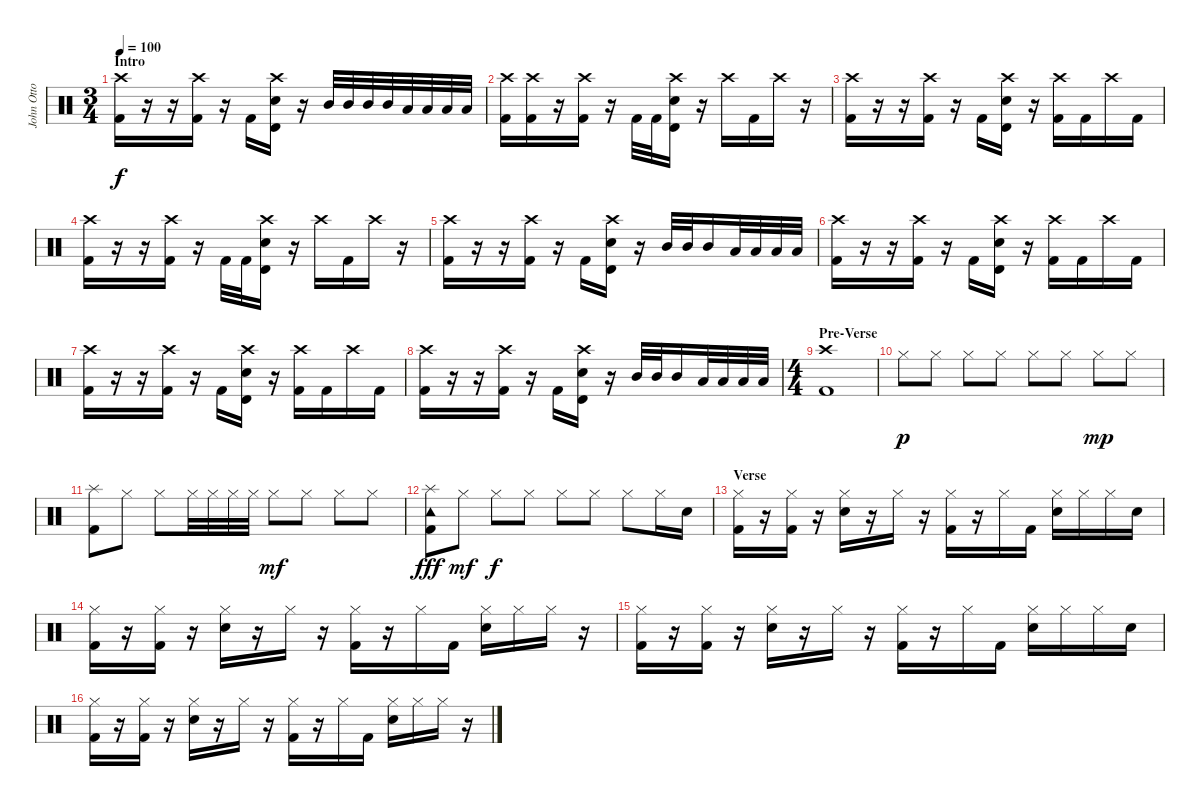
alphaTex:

\track ("John Otto - Drums" "John Otto ") {instrument percussion}
\staff {score}
\articulation defaults
\ts (3 4)
\section ("" "Intro")
\tempo 100
\clef neutral
\ks c
("Crash high (hit)" "Kick (hit) 2").16{dy f} r.16 r.16 ("Crash high (hit)" "Kick (hit) 2").16 r.16 "Kick (hit) 2".16 ("Crash high (hit)" "Timbale high (hit)" "Electric Snare (hit)").16 r.16 "Mid Tom (hit)".32 "Mid Tom (hit)".32 "Mid Tom (hit)".32 "Mid Tom (hit)".32 "Low Tom (hit)".32 "Low Tom (hit)".32 "Low Tom (hit)".32 "Low Tom (hit)".32 |
("Crash high (hit)" "Kick (hit) 2").16 ("Crash high (hit)" "Kick (hit) 2").16 r.16 ("Crash high (hit)" "Kick (hit) 2").16 r.16 "Kick (hit) 2".32 "Kick (hit) 2".32 ("Crash high (hit)" "Timbale high (hit)" "Electric Snare (hit)").16 r.16 "Crash high (hit)".16 "Kick (hit) 2".16 "Crash high (hit)".16 r.16 |
("Crash high (hit)" "Kick (hit) 2").16 r.16 r.16 ("Crash high (hit)" "Kick (hit) 2").16 r.16 "Kick (hit) 2".16 ("Crash high (hit)" "Timbale high (hit)" "Electric Snare (hit)").16 r.16 ("Crash high (hit)" "Kick (hit) 2").16 "Kick (hit) 2".16 "Crash high (hit)".16 "Kick (hit) 2".16 |
("Crash high (hit)" "Kick (hit) 2").16 r.16 r.16 ("Crash high (hit)" "Kick (hit) 2").16 r.16 "Kick (hit) 2".32 "Kick (hit) 2".32 ("Crash high (hit)" "Timbale high (hit)" "Electric Snare (hit)").16 r.16 "Crash high (hit)".16 "Kick (hit) 2".16 "Crash high (hit)".16 r.16 |
("Crash high (hit)" "Kick (hit) 2").16 r.16 r.16 ("Crash high (hit)" "Kick (hit) 2").16 r.16 "Kick (hit) 2".16 ("Crash high (hit)" "Timbale high (hit)" "Electric Snare (hit)").16 r.16 "Mid Tom (hit)".32 "Mid Tom (hit)".32 "Mid Tom (hit)".16 "Low Tom (hit)".32 "Low Tom (hit)".32 "Low Tom (hit)".32 "Low Tom (hit)".32 |
("Crash high (hit)" "Kick (hit) 2").16 r.16 r.16 ("Crash high (hit)" "Kick (hit) 2").16 r.16 "Kick (hit) 2".16 ("Crash high (hit)" "Timbale high (hit)" "Electric Snare (hit)").16 r.16 ("Crash high (hit)" "Kick (hit) 2").16 "Kick (hit) 2".16 "Crash high (hit)".16 "Kick (hit) 2".16 |
("Crash high (hit)" "Kick (hit) 2").16 r.16 r.16 ("Crash high (hit)" "Kick (hit) 2").16 r.16 "Kick (hit) 2".16 ("Crash high (hit)" "Timbale high (hit)" "Electric Snare (hit)").16 r.16 ("Crash high (hit)" "Kick (hit) 2").16 "Kick (hit) 2".16 "Crash high (hit)".16 "Kick (hit) 2".16 |
("Crash high (hit)" "Kick (hit) 2").16 r.16 r.16 ("Crash high (hit)" "Kick (hit) 2").16 r.16 "Kick (hit) 2".16 ("Crash high (hit)" "Timbale high (hit)" "Electric Snare (hit)").16 r.16 "Mid Tom (hit)".32 "Mid Tom (hit)".32 "Mid Tom (hit)".16 "Low Tom (hit)".32 "Low Tom (hit)".32 "Low Tom (hit)".32 "Low Tom (hit)".32 |
\ts (4 4)
\section ("" "Pre-Verse")
("Crash high (hit)" "Kick (hit) 2").1 |
"Hi-Hat (closed)".8{dy p} "Hi-Hat (closed)".8 "Hi-Hat (closed)".8 "Hi-Hat (closed)".8 "Hi-Hat (closed)".8 "Hi-Hat (closed)".8 "Hi-Hat (closed)".8{dy mp} "Hi-Hat (closed)".8 |
("Splash (hit)" "Kick (hit) 2").8 "Hi-Hat (closed)".8 "Hi-Hat (closed)".8 "Hi-Hat (closed)".32 "Hi-Hat (closed)".32 "Hi-Hat (closed)".32 "Hi-Hat (closed)".32 "Hi-Hat (closed)".8{dy mf} "Hi-Hat (closed)".8 "Hi-Hat (closed)".8 "Hi-Hat (closed)".8 |
("Splash (hit)" "Tambourine (hit)" "Kick (hit) 2").8{dy fff} "Hi-Hat (closed)".8{dy mf} "Hi-Hat (closed)".8{dy f} "Hi-Hat (closed)".8 "Hi-Hat (closed)".8 "Hi-Hat (closed)".8 "Hi-Hat (closed)".8 "Hi-Hat (closed)".16 "Electric Snare (hit)".16 |
\section ("" "Verse")
("Hi-Hat (closed)" "Kick (hit) 2").16 r.16 ("Hi-Hat (closed)" "Kick (hit) 2").16 r.16 ("Hi-Hat (closed)" "Electric Snare (hit)").16 r.16 "Hi-Hat (closed)".16 r.16 ("Hi-Hat (closed)" "Kick (hit) 2").16 r.16 "Hi-Hat (closed)".16 "Kick (hit) 2".16 ("Hi-Hat (closed)" "Electric Snare (hit)").16 "Hi-Hat (closed)".16 "Hi-Hat (closed)".16 "Electric Snare (hit)".16 |
("Hi-Hat (closed)" "Kick (hit) 2").16 r.16 ("Hi-Hat (closed)" "Kick (hit) 2").16 r.16 ("Hi-Hat (closed)" "Electric Snare (hit)").16 r.16 "Hi-Hat (closed)".16 r.16 ("Hi-Hat (closed)" "Kick (hit) 2").16 r.16 "Hi-Hat (closed)".16 "Kick (hit) 2".16 ("Hi-Hat (closed)" "Electric Snare (hit)").16 "Hi-Hat (closed)".16 "Hi-Hat (closed)".16 r.16 |
("Hi-Hat (closed)" "Kick (hit) 2").16 r.16 ("Hi-Hat (closed)" "Kick (hit) 2").16 r.16 ("Hi-Hat (closed)" "Electric Snare (hit)").16 r.16 "Hi-Hat (closed)".16 r.16 ("Hi-Hat (closed)" "Kick (hit) 2").16 r.16 "Hi-Hat (closed)".16 "Kick (hit) 2".16 ("Hi-Hat (closed)" "Electric Snare (hit)").16 "Hi-Hat (closed)".16 "Hi-Hat (closed)".16 "Electric Snare (hit)".16 |
("Hi-Hat (closed)" "Kick (hit) 2").16 r.16 ("Hi-Hat (closed)" "Kick (hit) 2").16 r.16 ("Hi-Hat (closed)" "Electric Snare (hit)").16 r.16 "Hi-Hat (closed)".16 r.16 ("Hi-Hat (closed)" "Kick (hit) 2").16 r.16 "Hi-Hat (closed)".16 "Kick (hit) 2".16 ("Hi-Hat (closed)" "Electric Snare (hit)").16 "Hi-Hat (closed)".16 "Hi-Hat (closed)".16 r.16
